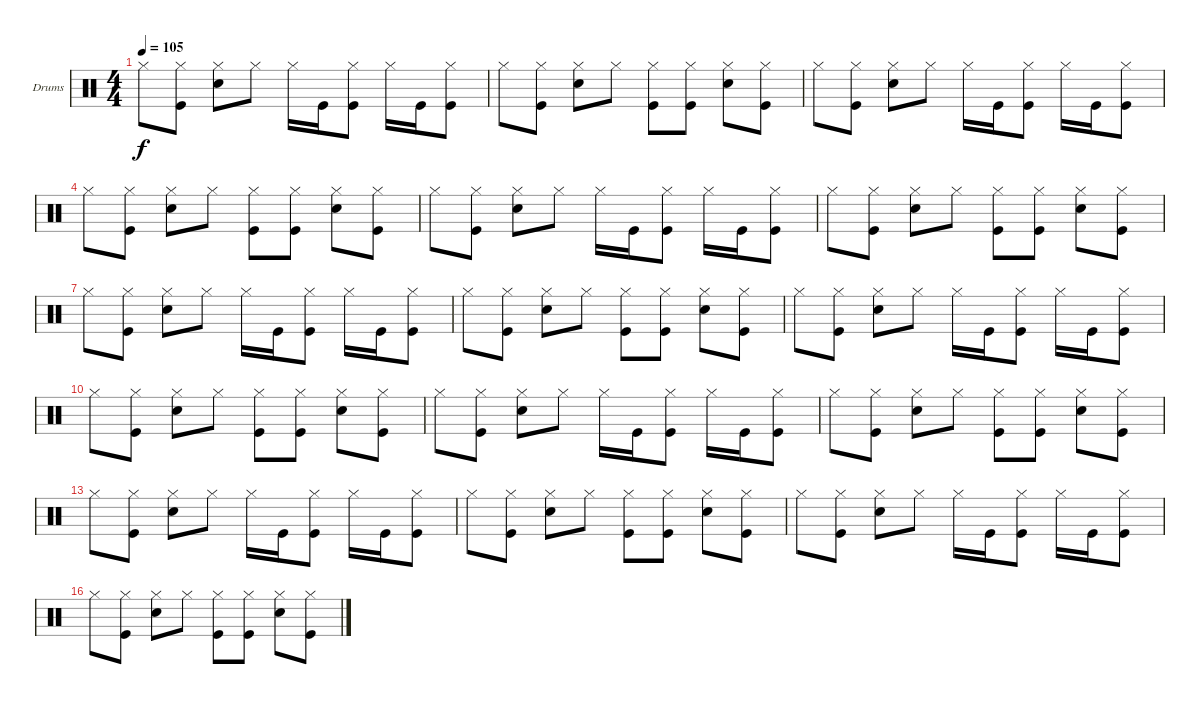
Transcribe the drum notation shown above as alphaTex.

\bracketExtendMode nobrackets
\firstSystemTrackNameOrientation horizontal
\otherSystemsTrackNameOrientation horizontal
\defaultBarNumberDisplay FirstOfSystem
\track ("Drumkit" "Drums") {instrument percussion}
\staff {score}
\articulation defaults
\ts (4 4)
\tempo 105
\clef neutral
\ks c "Hi-Hat (closed)".8{dy f}
("Kick (hit)" "Hi-Hat (closed)").8 ("Snare (hit) 2" "Hi-Hat (closed)").8 "Hi-Hat (closed)".8 "Hi-Hat (closed)".16 "Kick (hit)".16 ("Kick (hit)" "Hi-Hat (closed)").8 "Hi-Hat (closed)".16 "Kick (hit)".16 ("Kick (hit)" "Hi-Hat (closed)").8 |
"Hi-Hat (closed)".8 ("Kick (hit)" "Hi-Hat (closed)").8 ("Snare (hit) 2" "Hi-Hat (closed)").8 "Hi-Hat (closed)".8 ("Kick (hit)" "Hi-Hat (closed)").8 ("Kick (hit)" "Hi-Hat (closed)").8 ("Snare (hit) 2" "Hi-Hat (closed)").8 ("Kick (hit)" "Hi-Hat (closed)").8 |
"Hi-Hat (closed)".8 ("Kick (hit)" "Hi-Hat (closed)").8 ("Snare (hit) 2" "Hi-Hat (closed)").8 "Hi-Hat (closed)".8 "Hi-Hat (closed)".16 "Kick (hit)".16 ("Kick (hit)" "Hi-Hat (closed)").8 "Hi-Hat (closed)".16 "Kick (hit)".16 ("Kick (hit)" "Hi-Hat (closed)").8 |
"Hi-Hat (closed)".8 ("Kick (hit)" "Hi-Hat (closed)").8 ("Snare (hit) 2" "Hi-Hat (closed)").8 "Hi-Hat (closed)".8 ("Kick (hit)" "Hi-Hat (closed)").8 ("Kick (hit)" "Hi-Hat (closed)").8 ("Snare (hit) 2" "Hi-Hat (closed)").8 ("Kick (hit)" "Hi-Hat (closed)").8 |
"Hi-Hat (closed)".8 ("Kick (hit)" "Hi-Hat (closed)").8 ("Snare (hit) 2" "Hi-Hat (closed)").8 "Hi-Hat (closed)".8 "Hi-Hat (closed)".16 "Kick (hit)".16 ("Kick (hit)" "Hi-Hat (closed)").8 "Hi-Hat (closed)".16 "Kick (hit)".16 ("Kick (hit)" "Hi-Hat (closed)").8 |
"Hi-Hat (closed)".8 ("Kick (hit)" "Hi-Hat (closed)").8 ("Snare (hit) 2" "Hi-Hat (closed)").8 "Hi-Hat (closed)".8 ("Kick (hit)" "Hi-Hat (closed)").8 ("Kick (hit)" "Hi-Hat (closed)").8 ("Snare (hit) 2" "Hi-Hat (closed)").8 ("Kick (hit)" "Hi-Hat (closed)").8 |
"Hi-Hat (closed)".8 ("Kick (hit)" "Hi-Hat (closed)").8 ("Snare (hit) 2" "Hi-Hat (closed)").8 "Hi-Hat (closed)".8 "Hi-Hat (closed)".16 "Kick (hit)".16 ("Kick (hit)" "Hi-Hat (closed)").8 "Hi-Hat (closed)".16 "Kick (hit)".16 ("Kick (hit)" "Hi-Hat (closed)").8 |
"Hi-Hat (closed)".8 ("Kick (hit)" "Hi-Hat (closed)").8 ("Snare (hit) 2" "Hi-Hat (closed)").8 "Hi-Hat (closed)".8 ("Kick (hit)" "Hi-Hat (closed)").8 ("Kick (hit)" "Hi-Hat (closed)").8 ("Snare (hit) 2" "Hi-Hat (closed)").8 ("Kick (hit)" "Hi-Hat (closed)").8 |
"Hi-Hat (closed)".8 ("Kick (hit)" "Hi-Hat (closed)").8 ("Snare (hit) 2" "Hi-Hat (closed)").8 "Hi-Hat (closed)".8 "Hi-Hat (closed)".16 "Kick (hit)".16 ("Kick (hit)" "Hi-Hat (closed)").8 "Hi-Hat (closed)".16 "Kick (hit)".16 ("Kick (hit)" "Hi-Hat (closed)").8 |
"Hi-Hat (closed)".8 ("Kick (hit)" "Hi-Hat (closed)").8 ("Snare (hit) 2" "Hi-Hat (closed)").8 "Hi-Hat (closed)".8 ("Kick (hit)" "Hi-Hat (closed)").8 ("Kick (hit)" "Hi-Hat (closed)").8 ("Snare (hit) 2" "Hi-Hat (closed)").8 ("Kick (hit)" "Hi-Hat (closed)").8 |
"Hi-Hat (closed)".8 ("Kick (hit)" "Hi-Hat (closed)").8 ("Snare (hit) 2" "Hi-Hat (closed)").8 "Hi-Hat (closed)".8 "Hi-Hat (closed)".16 "Kick (hit)".16 ("Kick (hit)" "Hi-Hat (closed)").8 "Hi-Hat (closed)".16 "Kick (hit)".16 ("Kick (hit)" "Hi-Hat (closed)").8 |
"Hi-Hat (closed)".8 ("Kick (hit)" "Hi-Hat (closed)").8 ("Snare (hit) 2" "Hi-Hat (closed)").8 "Hi-Hat (closed)".8 ("Kick (hit)" "Hi-Hat (closed)").8 ("Kick (hit)" "Hi-Hat (closed)").8 ("Snare (hit) 2" "Hi-Hat (closed)").8 ("Kick (hit)" "Hi-Hat (closed)").8 |
"Hi-Hat (closed)".8 ("Kick (hit)" "Hi-Hat (closed)").8 ("Snare (hit) 2" "Hi-Hat (closed)").8 "Hi-Hat (closed)".8 "Hi-Hat (closed)".16 "Kick (hit)".16 ("Kick (hit)" "Hi-Hat (closed)").8 "Hi-Hat (closed)".16 "Kick (hit)".16 ("Kick (hit)" "Hi-Hat (closed)").8 |
"Hi-Hat (closed)".8 ("Kick (hit)" "Hi-Hat (closed)").8 ("Snare (hit) 2" "Hi-Hat (closed)").8 "Hi-Hat (closed)".8 ("Kick (hit)" "Hi-Hat (closed)").8 ("Kick (hit)" "Hi-Hat (closed)").8 ("Snare (hit) 2" "Hi-Hat (closed)").8 ("Kick (hit)" "Hi-Hat (closed)").8 |
"Hi-Hat (closed)".8 ("Kick (hit)" "Hi-Hat (closed)").8 ("Snare (hit) 2" "Hi-Hat (closed)").8 "Hi-Hat (closed)".8 "Hi-Hat (closed)".16 "Kick (hit)".16 ("Kick (hit)" "Hi-Hat (closed)").8 "Hi-Hat (closed)".16 "Kick (hit)".16 ("Kick (hit)" "Hi-Hat (closed)").8 |
"Hi-Hat (closed)".8 ("Kick (hit)" "Hi-Hat (closed)").8 ("Snare (hit) 2" "Hi-Hat (closed)").8 "Hi-Hat (closed)".8 ("Kick (hit)" "Hi-Hat (closed)").8 ("Kick (hit)" "Hi-Hat (closed)").8 ("Snare (hit) 2" "Hi-Hat (closed)").8 ("Kick (hit)" "Hi-Hat (closed)").8
